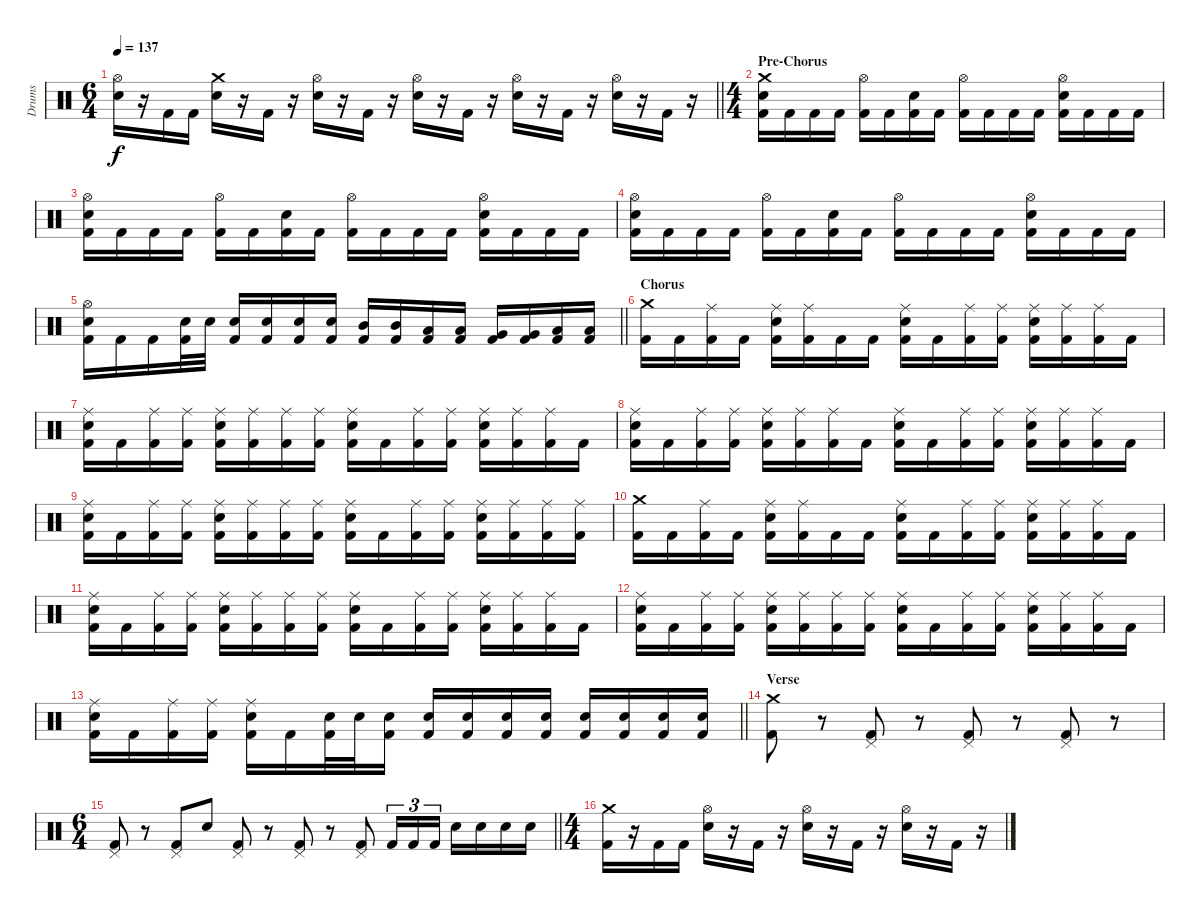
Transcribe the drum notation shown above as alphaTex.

\track ("Drums" "Drums") {instrument percussion}
\staff {score}
\articulation defaults
\ts (6 4)
\tempo 137
\clef neutral
\barLineRight lightlight
\ks c
("Hi-Hat (open)" "Electric Snare (hit)").16{dy f} r.16 "Kick (hit) 2".16 "Kick (hit) 2".16 ("Crash medium (hit)" "Electric Snare (hit)").16 r.16 "Kick (hit) 2".16 r.16 ("Hi-Hat (open)" "Electric Snare (hit)").16 r.16 "Kick (hit) 2".16 r.16 ("Hi-Hat (open)" "Electric Snare (hit)").16 r.16 "Kick (hit) 2".16 r.16 ("Hi-Hat (open)" "Electric Snare (hit)").16 r.16 "Kick (hit) 2".16 r.16 ("Hi-Hat (open)" "Electric Snare (hit)").16 r.16 "Kick (hit) 2".16 r.16 |
\ts (4 4)
\section ("" "Pre-Chorus")
("Crash medium (hit)" "Electric Snare (hit)" "Kick (hit) 2").16 "Kick (hit) 2".16 "Kick (hit) 2".16 "Kick (hit) 2".16 ("Hi-Hat (open)" "Kick (hit) 2").16 "Kick (hit) 2".16 ("Electric Snare (hit)" "Kick (hit) 2").16 "Kick (hit) 2".16 ("Hi-Hat (open)" "Kick (hit) 2").16 "Kick (hit) 2".16 "Kick (hit) 2".16 "Kick (hit) 2".16 ("Hi-Hat (open)" "Electric Snare (hit)" "Kick (hit) 2").16 "Kick (hit) 2".16 "Kick (hit) 2".16 "Kick (hit) 2".16 |
("Hi-Hat (open)" "Electric Snare (hit)" "Kick (hit) 2").16 "Kick (hit) 2".16 "Kick (hit) 2".16 "Kick (hit) 2".16 ("Hi-Hat (open)" "Kick (hit) 2").16 "Kick (hit) 2".16 ("Electric Snare (hit)" "Kick (hit) 2").16 "Kick (hit) 2".16 ("Hi-Hat (open)" "Kick (hit) 2").16 "Kick (hit) 2".16 "Kick (hit) 2".16 "Kick (hit) 2".16 ("Hi-Hat (open)" "Electric Snare (hit)" "Kick (hit) 2").16 "Kick (hit) 2".16 "Kick (hit) 2".16 "Kick (hit) 2".16 |
("Hi-Hat (open)" "Electric Snare (hit)" "Kick (hit) 2").16 "Kick (hit) 2".16 "Kick (hit) 2".16 "Kick (hit) 2".16 ("Hi-Hat (open)" "Kick (hit) 2").16 "Kick (hit) 2".16 ("Electric Snare (hit)" "Kick (hit) 2").16 "Kick (hit) 2".16 ("Hi-Hat (open)" "Kick (hit) 2").16 "Kick (hit) 2".16 "Kick (hit) 2".16 "Kick (hit) 2".16 ("Hi-Hat (open)" "Electric Snare (hit)" "Kick (hit) 2").16 "Kick (hit) 2".16 "Kick (hit) 2".16 "Kick (hit) 2".16 |
\barLineRight lightlight
("Hi-Hat (open)" "Electric Snare (hit)" "Kick (hit) 2").16 "Kick (hit) 2".16 "Kick (hit) 2".16 ("Electric Snare (hit)" "Kick (hit) 2").32 "Electric Snare (hit)".32 ("Electric Snare (hit)" "Kick (hit) 2").16 ("Electric Snare (hit)" "Kick (hit) 2").16 ("Electric Snare (hit)" "Kick (hit) 2").16 ("Electric Snare (hit)" "Kick (hit) 2").16 ("Mid Tom (hit)" "Kick (hit) 2").16 ("Mid Tom (hit)" "Kick (hit) 2").16 ("Low Tom (hit)" "Kick (hit) 2").16 ("Low Tom (hit)" "Kick (hit) 2").16 ("Very Low Tom (hit)" "Kick (hit) 2").16 ("Very Low Tom (hit)" "Kick (hit) 2").16 ("Low Floor Tom (hit)" "Kick (hit) 2").16 ("Low Floor Tom (hit)" "Kick (hit) 2").16 |
\section ("" "Chorus")
("Crash medium (hit)" "Kick (hit) 2").16 "Kick (hit) 2".16 ("Ride (middle)" "Kick (hit) 2").16 "Kick (hit) 2".16 ("Ride (middle)" "Electric Snare (hit)" "Kick (hit) 2").16 ("Ride (middle)" "Kick (hit) 2").16 "Kick (hit) 2".16 "Kick (hit) 2".16 ("Ride (middle)" "Electric Snare (hit)" "Kick (hit) 2").16 "Kick (hit) 2".16 ("Ride (middle)" "Kick (hit) 2").16 ("Ride (middle)" "Kick (hit) 2").16 ("Ride (middle)" "Electric Snare (hit)" "Kick (hit) 2").16 ("Ride (middle)" "Kick (hit) 2").16 ("Ride (middle)" "Kick (hit) 2").16 "Kick (hit) 2".16 |
("Ride (middle)" "Electric Snare (hit)" "Kick (hit) 2").16 "Kick (hit) 2".16 ("Ride (middle)" "Kick (hit) 2").16 ("Ride (middle)" "Kick (hit) 2").16 ("Ride (middle)" "Electric Snare (hit)" "Kick (hit) 2").16 ("Ride (middle)" "Kick (hit) 2").16 ("Ride (middle)" "Kick (hit) 2").16 ("Ride (middle)" "Kick (hit) 2").16 ("Ride (middle)" "Electric Snare (hit)" "Kick (hit) 2").16 "Kick (hit) 2".16 ("Ride (middle)" "Kick (hit) 2").16 ("Ride (middle)" "Kick (hit) 2").16 ("Ride (middle)" "Electric Snare (hit)" "Kick (hit) 2").16 ("Ride (middle)" "Kick (hit) 2").16 ("Ride (middle)" "Kick (hit) 2").16 "Kick (hit) 2".16 |
("Ride (middle)" "Electric Snare (hit)" "Kick (hit) 2").16 "Kick (hit) 2".16 ("Ride (middle)" "Kick (hit) 2").16 ("Ride (middle)" "Kick (hit) 2").16 ("Ride (middle)" "Electric Snare (hit)" "Kick (hit) 2").16 ("Ride (middle)" "Kick (hit) 2").16 ("Ride (middle)" "Kick (hit) 2").16 "Kick (hit) 2".16 ("Ride (middle)" "Electric Snare (hit)" "Kick (hit) 2").16 "Kick (hit) 2".16 ("Ride (middle)" "Kick (hit) 2").16 ("Ride (middle)" "Kick (hit) 2").16 ("Ride (middle)" "Electric Snare (hit)" "Kick (hit) 2").16 ("Ride (middle)" "Kick (hit) 2").16 ("Ride (middle)" "Kick (hit) 2").16 "Kick (hit) 2".16 |
("Ride (middle)" "Electric Snare (hit)" "Kick (hit) 2").16 "Kick (hit) 2".16 ("Ride (middle)" "Kick (hit) 2").16 ("Ride (middle)" "Kick (hit) 2").16 ("Ride (middle)" "Electric Snare (hit)" "Kick (hit) 2").16 ("Ride (middle)" "Kick (hit) 2").16 ("Ride (middle)" "Kick (hit) 2").16 ("Ride (middle)" "Kick (hit) 2").16 ("Ride (middle)" "Electric Snare (hit)" "Kick (hit) 2").16 "Kick (hit) 2".16 ("Ride (middle)" "Kick (hit) 2").16 ("Ride (middle)" "Kick (hit) 2").16 ("Ride (middle)" "Electric Snare (hit)" "Kick (hit) 2").16 ("Ride (middle)" "Kick (hit) 2").16 ("Ride (middle)" "Kick (hit) 2").16 ("Ride (middle)" "Kick (hit) 2").16 |
("Crash medium (hit)" "Kick (hit) 2").16 "Kick (hit) 2".16 ("Ride (middle)" "Kick (hit) 2").16 "Kick (hit) 2".16 ("Ride (middle)" "Electric Snare (hit)" "Kick (hit) 2").16 ("Ride (middle)" "Kick (hit) 2").16 "Kick (hit) 2".16 "Kick (hit) 2".16 ("Ride (middle)" "Electric Snare (hit)" "Kick (hit) 2").16 "Kick (hit) 2".16 ("Ride (middle)" "Kick (hit) 2").16 ("Ride (middle)" "Kick (hit) 2").16 ("Ride (middle)" "Electric Snare (hit)" "Kick (hit) 2").16 ("Ride (middle)" "Kick (hit) 2").16 ("Ride (middle)" "Kick (hit) 2").16 "Kick (hit) 2".16 |
("Ride (middle)" "Electric Snare (hit)" "Kick (hit) 2").16 "Kick (hit) 2".16 ("Ride (middle)" "Kick (hit) 2").16 ("Ride (middle)" "Kick (hit) 2").16 ("Ride (middle)" "Electric Snare (hit)" "Kick (hit) 2").16 ("Ride (middle)" "Kick (hit) 2").16 ("Ride (middle)" "Kick (hit) 2").16 ("Ride (middle)" "Kick (hit) 2").16 ("Ride (middle)" "Electric Snare (hit)" "Kick (hit) 2").16 "Kick (hit) 2".16 ("Ride (middle)" "Kick (hit) 2").16 ("Ride (middle)" "Kick (hit) 2").16 ("Ride (middle)" "Electric Snare (hit)" "Kick (hit) 2").16 ("Ride (middle)" "Kick (hit) 2").16 ("Ride (middle)" "Kick (hit) 2").16 "Kick (hit) 2".16 |
("Ride (middle)" "Electric Snare (hit)" "Kick (hit) 2").16 "Kick (hit) 2".16 ("Ride (middle)" "Kick (hit) 2").16 ("Ride (middle)" "Kick (hit) 2").16 ("Ride (middle)" "Electric Snare (hit)" "Kick (hit) 2").16 ("Ride (middle)" "Kick (hit) 2").16 ("Ride (middle)" "Kick (hit) 2").16 ("Ride (middle)" "Kick (hit) 2").16 ("Ride (middle)" "Electric Snare (hit)" "Kick (hit) 2").16 "Kick (hit) 2".16 ("Ride (middle)" "Kick (hit) 2").16 ("Ride (middle)" "Kick (hit) 2").16 ("Ride (middle)" "Electric Snare (hit)" "Kick (hit) 2").16 ("Ride (middle)" "Kick (hit) 2").16 ("Ride (middle)" "Kick (hit) 2").16 "Kick (hit) 2".16 |
\barLineRight lightlight
("Ride (middle)" "Electric Snare (hit)" "Kick (hit) 2").16 "Kick (hit) 2".16 ("Ride (middle)" "Kick (hit) 2").16 ("Ride (middle)" "Kick (hit) 2").16 ("Ride (middle)" "Electric Snare (hit)" "Kick (hit) 2").16 "Kick (hit) 2".16 ("Electric Snare (hit)" "Kick (hit) 2").32 "Electric Snare (hit)".32 ("Electric Snare (hit)" "Kick (hit) 2").16 ("Electric Snare (hit)" "Kick (hit) 2").16 ("Electric Snare (hit)" "Kick (hit) 2").16 ("Electric Snare (hit)" "Kick (hit) 2").16 ("Electric Snare (hit)" "Kick (hit) 2").16 ("Electric Snare (hit)" "Kick (hit) 2").16 ("Electric Snare (hit)" "Kick (hit) 2").16 ("Electric Snare (hit)" "Kick (hit) 2").16 ("Electric Snare (hit)" "Kick (hit) 2").16 |
\section ("" "Verse")
("Crash medium (hit)" "Kick (hit) 2").8 r.8 ("Pedal Hi-Hat (hit)" "Kick (hit) 2").8 r.8 ("Pedal Hi-Hat (hit)" "Kick (hit) 2").8 r.8 ("Pedal Hi-Hat (hit)" "Kick (hit) 2").8 r.8 |
\ts (6 4)
\barLineRight lightlight
("Pedal Hi-Hat (hit)" "Kick (hit) 2").8 r.8 ("Pedal Hi-Hat (hit)" "Kick (hit) 2").8 "Electric Snare (hit)".8 ("Pedal Hi-Hat (hit)" "Kick (hit) 2").8 r.8 ("Pedal Hi-Hat (hit)" "Kick (hit) 2").8 r.8 ("Pedal Hi-Hat (hit)" "Kick (hit) 2").8 "Kick (hit) 2".16{tu (3 2)} "Kick (hit) 2".16{tu (3 2)} "Kick (hit) 2".16{tu (3 2)} "Electric Snare (hit)".16 "Electric Snare (hit)".16 "Electric Snare (hit)".16 "Electric Snare (hit)".16 |
\ts (4 4)
\section ("" "")
("Crash medium (hit)" "Kick (hit) 2").16 r.16 "Kick (hit) 2".16 "Kick (hit) 2".16 ("Hi-Hat (open)" "Electric Snare (hit)").16 r.16 "Kick (hit) 2".16 r.16 ("Hi-Hat (open)" "Electric Snare (hit)").16 r.16 "Kick (hit) 2".16 r.16 ("Hi-Hat (open)" "Electric Snare (hit)").16 r.16 "Kick (hit) 2".16 r.16
